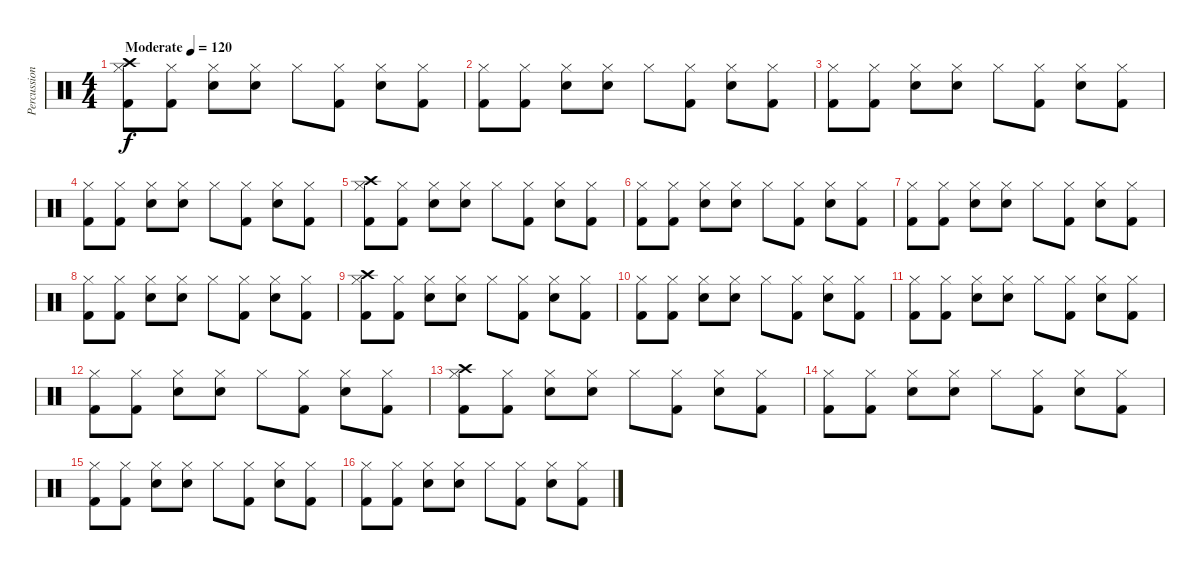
\track ("Percussion" "Percussion") {instrument percussion}
\staff {score}
\articulation defaults
\ts (4 4)
\tempo (120 "Moderate")
\clef neutral
\ks c
("Kick (hit) 2" "Hi-Hat (closed)" "Crash high (hit)").8{dy f} ("Kick (hit) 2" "Hi-Hat (closed)").8 ("Electric Snare (hit)" "Hi-Hat (closed)").8 ("Electric Snare (hit)" "Hi-Hat (closed)").8 "Hi-Hat (closed)".8 ("Kick (hit) 2" "Hi-Hat (closed)").8 ("Electric Snare (hit)" "Hi-Hat (closed)").8 ("Kick (hit) 2" "Hi-Hat (closed)").8 |
("Kick (hit) 2" "Hi-Hat (closed)").8 ("Kick (hit) 2" "Hi-Hat (closed)").8 ("Electric Snare (hit)" "Hi-Hat (closed)").8 ("Electric Snare (hit)" "Hi-Hat (closed)").8 "Hi-Hat (closed)".8 ("Kick (hit) 2" "Hi-Hat (closed)").8 ("Electric Snare (hit)" "Hi-Hat (closed)").8 ("Kick (hit) 2" "Hi-Hat (closed)").8 |
("Kick (hit) 2" "Hi-Hat (closed)").8 ("Kick (hit) 2" "Hi-Hat (closed)").8 ("Electric Snare (hit)" "Hi-Hat (closed)").8 ("Electric Snare (hit)" "Hi-Hat (closed)").8 "Hi-Hat (closed)".8 ("Kick (hit) 2" "Hi-Hat (closed)").8 ("Electric Snare (hit)" "Hi-Hat (closed)").8 ("Kick (hit) 2" "Hi-Hat (closed)").8 |
("Kick (hit) 2" "Hi-Hat (closed)").8 ("Kick (hit) 2" "Hi-Hat (closed)").8 ("Electric Snare (hit)" "Hi-Hat (closed)").8 ("Electric Snare (hit)" "Hi-Hat (closed)").8 "Hi-Hat (closed)".8 ("Kick (hit) 2" "Hi-Hat (closed)").8 ("Electric Snare (hit)" "Hi-Hat (closed)").8 ("Kick (hit) 2" "Hi-Hat (closed)").8 |
("Kick (hit) 2" "Hi-Hat (closed)" "Crash high (hit)").8 ("Kick (hit) 2" "Hi-Hat (closed)").8 ("Electric Snare (hit)" "Hi-Hat (closed)").8 ("Electric Snare (hit)" "Hi-Hat (closed)").8 "Hi-Hat (closed)".8 ("Kick (hit) 2" "Hi-Hat (closed)").8 ("Electric Snare (hit)" "Hi-Hat (closed)").8 ("Kick (hit) 2" "Hi-Hat (closed)").8 |
("Kick (hit) 2" "Hi-Hat (closed)").8 ("Kick (hit) 2" "Hi-Hat (closed)").8 ("Electric Snare (hit)" "Hi-Hat (closed)").8 ("Electric Snare (hit)" "Hi-Hat (closed)").8 "Hi-Hat (closed)".8 ("Kick (hit) 2" "Hi-Hat (closed)").8 ("Electric Snare (hit)" "Hi-Hat (closed)").8 ("Kick (hit) 2" "Hi-Hat (closed)").8 |
("Kick (hit) 2" "Hi-Hat (closed)").8 ("Kick (hit) 2" "Hi-Hat (closed)").8 ("Electric Snare (hit)" "Hi-Hat (closed)").8 ("Electric Snare (hit)" "Hi-Hat (closed)").8 "Hi-Hat (closed)".8 ("Kick (hit) 2" "Hi-Hat (closed)").8 ("Electric Snare (hit)" "Hi-Hat (closed)").8 ("Kick (hit) 2" "Hi-Hat (closed)").8 |
("Kick (hit) 2" "Hi-Hat (closed)").8 ("Kick (hit) 2" "Hi-Hat (closed)").8 ("Electric Snare (hit)" "Hi-Hat (closed)").8 ("Electric Snare (hit)" "Hi-Hat (closed)").8 "Hi-Hat (closed)".8 ("Kick (hit) 2" "Hi-Hat (closed)").8 ("Electric Snare (hit)" "Hi-Hat (closed)").8 ("Kick (hit) 2" "Hi-Hat (closed)").8 |
("Kick (hit) 2" "Hi-Hat (closed)" "Crash high (hit)").8 ("Kick (hit) 2" "Hi-Hat (closed)").8 ("Electric Snare (hit)" "Hi-Hat (closed)").8 ("Electric Snare (hit)" "Hi-Hat (closed)").8 "Hi-Hat (closed)".8 ("Kick (hit) 2" "Hi-Hat (closed)").8 ("Electric Snare (hit)" "Hi-Hat (closed)").8 ("Kick (hit) 2" "Hi-Hat (closed)").8 |
("Kick (hit) 2" "Hi-Hat (closed)").8 ("Kick (hit) 2" "Hi-Hat (closed)").8 ("Electric Snare (hit)" "Hi-Hat (closed)").8 ("Electric Snare (hit)" "Hi-Hat (closed)").8 "Hi-Hat (closed)".8 ("Kick (hit) 2" "Hi-Hat (closed)").8 ("Electric Snare (hit)" "Hi-Hat (closed)").8 ("Kick (hit) 2" "Hi-Hat (closed)").8 |
("Kick (hit) 2" "Hi-Hat (closed)").8 ("Kick (hit) 2" "Hi-Hat (closed)").8 ("Electric Snare (hit)" "Hi-Hat (closed)").8 ("Electric Snare (hit)" "Hi-Hat (closed)").8 "Hi-Hat (closed)".8 ("Kick (hit) 2" "Hi-Hat (closed)").8 ("Electric Snare (hit)" "Hi-Hat (closed)").8 ("Kick (hit) 2" "Hi-Hat (closed)").8 |
("Kick (hit) 2" "Hi-Hat (closed)").8 ("Kick (hit) 2" "Hi-Hat (closed)").8 ("Electric Snare (hit)" "Hi-Hat (closed)").8 ("Electric Snare (hit)" "Hi-Hat (closed)").8 "Hi-Hat (closed)".8 ("Kick (hit) 2" "Hi-Hat (closed)").8 ("Electric Snare (hit)" "Hi-Hat (closed)").8 ("Kick (hit) 2" "Hi-Hat (closed)").8 |
("Kick (hit) 2" "Hi-Hat (closed)" "Crash high (hit)").8 ("Kick (hit) 2" "Hi-Hat (closed)").8 ("Electric Snare (hit)" "Hi-Hat (closed)").8 ("Electric Snare (hit)" "Hi-Hat (closed)").8 "Hi-Hat (closed)".8 ("Kick (hit) 2" "Hi-Hat (closed)").8 ("Electric Snare (hit)" "Hi-Hat (closed)").8 ("Kick (hit) 2" "Hi-Hat (closed)").8 |
("Kick (hit) 2" "Hi-Hat (closed)").8 ("Kick (hit) 2" "Hi-Hat (closed)").8 ("Electric Snare (hit)" "Hi-Hat (closed)").8 ("Electric Snare (hit)" "Hi-Hat (closed)").8 "Hi-Hat (closed)".8 ("Kick (hit) 2" "Hi-Hat (closed)").8 ("Electric Snare (hit)" "Hi-Hat (closed)").8 ("Kick (hit) 2" "Hi-Hat (closed)").8 |
("Kick (hit) 2" "Hi-Hat (closed)").8 ("Kick (hit) 2" "Hi-Hat (closed)").8 ("Electric Snare (hit)" "Hi-Hat (closed)").8 ("Electric Snare (hit)" "Hi-Hat (closed)").8 "Hi-Hat (closed)".8 ("Kick (hit) 2" "Hi-Hat (closed)").8 ("Electric Snare (hit)" "Hi-Hat (closed)").8 ("Kick (hit) 2" "Hi-Hat (closed)").8 |
("Kick (hit) 2" "Hi-Hat (closed)").8 ("Kick (hit) 2" "Hi-Hat (closed)").8 ("Electric Snare (hit)" "Hi-Hat (closed)").8 ("Electric Snare (hit)" "Hi-Hat (closed)").8 "Hi-Hat (closed)".8 ("Kick (hit) 2" "Hi-Hat (closed)").8 ("Electric Snare (hit)" "Hi-Hat (closed)").8 ("Kick (hit) 2" "Hi-Hat (closed)").8
